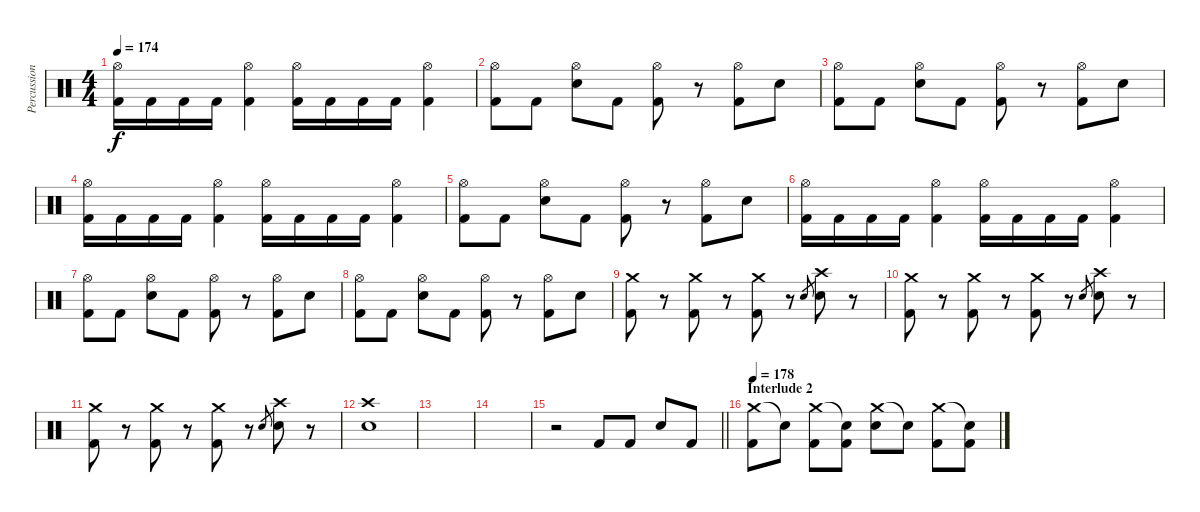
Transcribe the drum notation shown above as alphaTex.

\track ("Percussion" "Percussion") {instrument percussion}
\staff {score}
\articulation defaults
\ts (4 4)
\tempo 174
\clef neutral
\ks c
("Hi-Hat (open)" "Kick (hit) 2").16{dy f} "Kick (hit) 2".16 "Kick (hit) 2".16 "Kick (hit) 2".16 ("Hi-Hat (open)" "Kick (hit) 2").4 ("Hi-Hat (open)" "Kick (hit) 2").16 "Kick (hit) 2".16 "Kick (hit) 2".16 "Kick (hit) 2".16 ("Hi-Hat (open)" "Kick (hit) 2").4 |
("Hi-Hat (open)" "Kick (hit) 2").8 "Kick (hit) 2".8 ("Hi-Hat (open)" "Snare (hit) 2").8 "Kick (hit) 2".8 ("Hi-Hat (open)" "Kick (hit) 2").8 r.8 ("Hi-Hat (open)" "Kick (hit) 2").8 "Snare (hit) 2".8 |
("Hi-Hat (open)" "Kick (hit) 2").8 "Kick (hit) 2".8 ("Hi-Hat (open)" "Snare (hit) 2").8 "Kick (hit) 2".8 ("Hi-Hat (open)" "Kick (hit) 2").8 r.8 ("Hi-Hat (open)" "Kick (hit) 2").8 "Snare (hit) 2".8 |
("Hi-Hat (open)" "Kick (hit) 2").16 "Kick (hit) 2".16 "Kick (hit) 2".16 "Kick (hit) 2".16 ("Hi-Hat (open)" "Kick (hit) 2").4 ("Hi-Hat (open)" "Kick (hit) 2").16 "Kick (hit) 2".16 "Kick (hit) 2".16 "Kick (hit) 2".16 ("Hi-Hat (open)" "Kick (hit) 2").4 |
("Hi-Hat (open)" "Kick (hit) 2").8 "Kick (hit) 2".8 ("Hi-Hat (open)" "Snare (hit) 2").8 "Kick (hit) 2".8 ("Hi-Hat (open)" "Kick (hit) 2").8 r.8 ("Hi-Hat (open)" "Kick (hit) 2").8 "Snare (hit) 2".8 |
("Hi-Hat (open)" "Kick (hit) 2").16 "Kick (hit) 2".16 "Kick (hit) 2".16 "Kick (hit) 2".16 ("Hi-Hat (open)" "Kick (hit) 2").4 ("Hi-Hat (open)" "Kick (hit) 2").16 "Kick (hit) 2".16 "Kick (hit) 2".16 "Kick (hit) 2".16 ("Hi-Hat (open)" "Kick (hit) 2").4 |
("Hi-Hat (open)" "Kick (hit) 2").8 "Kick (hit) 2".8 ("Hi-Hat (open)" "Snare (hit) 2").8 "Kick (hit) 2".8 ("Hi-Hat (open)" "Kick (hit) 2").8 r.8 ("Hi-Hat (open)" "Kick (hit) 2").8 "Snare (hit) 2".8 |
("Hi-Hat (open)" "Kick (hit) 2").8 "Kick (hit) 2".8 ("Hi-Hat (open)" "Snare (hit) 2").8 "Kick (hit) 2".8 ("Hi-Hat (open)" "Kick (hit) 2").8 r.8 ("Hi-Hat (open)" "Kick (hit) 2").8 "Snare (hit) 2".8 |
("Crash medium (hit)" "Kick (hit) 2").8 r.8 ("Crash medium (hit)" "Kick (hit) 2").8 r.8 ("Crash medium (hit)" "Kick (hit) 2").8 r.8 "Snare (hit) 2".8{gr} ("Crash high (hit)" "Snare (hit) 2").8 r.8 |
("Crash medium (hit)" "Kick (hit) 2").8 r.8 ("Crash medium (hit)" "Kick (hit) 2").8 r.8 ("Crash medium (hit)" "Kick (hit) 2").8 r.8 "Snare (hit) 2".8{gr} ("Crash high (hit)" "Snare (hit) 2").8 r.8 |
("Crash medium (hit)" "Kick (hit) 2").8 r.8 ("Crash medium (hit)" "Kick (hit) 2").8 r.8 ("Crash medium (hit)" "Kick (hit) 2").8 r.8 "Snare (hit) 2".8{gr} ("Crash high (hit)" "Snare (hit) 2").8 r.8 |
("Crash high (hit)" "Snare (hit) 2").1 |
|
|
\barLineRight lightlight
r.2 "Kick (hit) 2".8 "Kick (hit) 2".8 "Snare (hit) 2".8 "Kick (hit) 2".8 |
\section ("" "Interlude 2")
\tempo 178
("Crash medium (hit)" "Kick (hit) 2").8 "Snare (hit)"{t}.8 ("Crash medium (hit)" "Kick (hit) 2").8 ("Snare (hit)"{t} "Kick (hit) 2").8 ("Crash medium (hit)" "Snare (hit) 2").8 "Snare (hit)"{t}.8 ("Crash medium (hit)" "Kick (hit) 2").8 ("Snare (hit)"{t} "Kick (hit) 2").8
